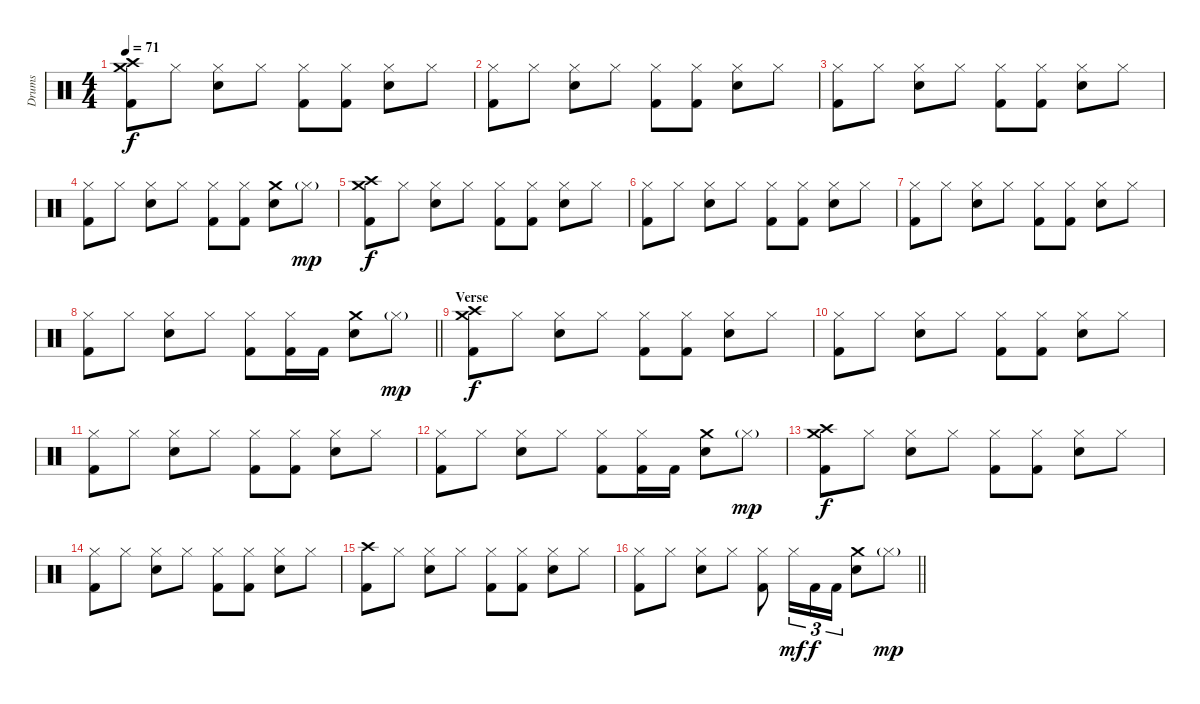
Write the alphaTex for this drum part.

\track ("Drums" "Drums") {instrument percussion}
\staff {score}
\articulation defaults
\ts (4 4)
\tempo 71
\clef neutral
\ks c
("Crash medium (hit)" "Crash high (hit)" "Kick (hit) 2").8{dy f} "Hi-Hat (closed)".8 ("Hi-Hat (closed)" "Snare (hit) 2").8 "Hi-Hat (closed)".8 ("Hi-Hat (closed)" "Kick (hit) 2").8 ("Hi-Hat (closed)" "Kick (hit) 2").8 ("Hi-Hat (closed)" "Snare (hit) 2").8 "Hi-Hat (closed)".8 |
("Hi-Hat (closed)" "Kick (hit) 2").8 "Hi-Hat (closed)".8 ("Hi-Hat (closed)" "Snare (hit) 2").8 "Hi-Hat (closed)".8 ("Hi-Hat (closed)" "Kick (hit) 2").8 ("Hi-Hat (closed)" "Kick (hit) 2").8 ("Hi-Hat (closed)" "Snare (hit) 2").8 "Hi-Hat (closed)".8 |
("Hi-Hat (closed)" "Kick (hit) 2").8 "Hi-Hat (closed)".8 ("Hi-Hat (closed)" "Snare (hit) 2").8 "Hi-Hat (closed)".8 ("Hi-Hat (closed)" "Kick (hit) 2").8 ("Hi-Hat (closed)" "Kick (hit) 2").8 ("Hi-Hat (closed)" "Snare (hit) 2").8 "Hi-Hat (closed)".8 |
("Hi-Hat (closed)" "Kick (hit) 2").8 "Hi-Hat (closed)".8 ("Hi-Hat (closed)" "Snare (hit) 2").8 "Hi-Hat (closed)".8 ("Hi-Hat (closed)" "Kick (hit) 2").8 ("Hi-Hat (closed)" "Kick (hit) 2").8 ("Crash medium (hit)" "Snare (hit) 2").8 "Hi-Hat (closed)"{g}.8{dy mp} |
("Crash medium (hit)" "Crash high (hit)" "Kick (hit) 2").8{dy f} "Hi-Hat (closed)".8 ("Hi-Hat (closed)" "Snare (hit) 2").8 "Hi-Hat (closed)".8 ("Hi-Hat (closed)" "Kick (hit) 2").8 ("Hi-Hat (closed)" "Kick (hit) 2").8 ("Hi-Hat (closed)" "Snare (hit) 2").8 "Hi-Hat (closed)".8 |
("Hi-Hat (closed)" "Kick (hit) 2").8 "Hi-Hat (closed)".8 ("Hi-Hat (closed)" "Snare (hit) 2").8 "Hi-Hat (closed)".8 ("Hi-Hat (closed)" "Kick (hit) 2").8 ("Hi-Hat (closed)" "Kick (hit) 2").8 ("Hi-Hat (closed)" "Snare (hit) 2").8 "Hi-Hat (closed)".8 |
("Hi-Hat (closed)" "Kick (hit) 2").8 "Hi-Hat (closed)".8 ("Hi-Hat (closed)" "Snare (hit) 2").8 "Hi-Hat (closed)".8 ("Hi-Hat (closed)" "Kick (hit) 2").8 ("Hi-Hat (closed)" "Kick (hit) 2").8 ("Hi-Hat (closed)" "Snare (hit) 2").8 "Hi-Hat (closed)".8 |
\barLineRight lightlight
("Hi-Hat (closed)" "Kick (hit) 2").8 "Hi-Hat (closed)".8 ("Hi-Hat (closed)" "Snare (hit) 2").8 "Hi-Hat (closed)".8 ("Hi-Hat (closed)" "Kick (hit) 2").8 ("Hi-Hat (closed)" "Kick (hit) 2").16 "Kick (hit) 2".16 ("Crash medium (hit)" "Snare (hit) 2").8 "Hi-Hat (closed)"{g}.8{dy mp} |
\section ("" "Verse")
("Crash medium (hit)" "Crash high (hit)" "Kick (hit) 2").8{dy f} "Hi-Hat (closed)".8 ("Hi-Hat (closed)" "Snare (hit) 2").8 "Hi-Hat (closed)".8 ("Hi-Hat (closed)" "Kick (hit) 2").8 ("Hi-Hat (closed)" "Kick (hit) 2").8 ("Hi-Hat (closed)" "Snare (hit) 2").8 "Hi-Hat (closed)".8 |
("Hi-Hat (closed)" "Kick (hit) 2").8 "Hi-Hat (closed)".8 ("Hi-Hat (closed)" "Snare (hit) 2").8 "Hi-Hat (closed)".8 ("Hi-Hat (closed)" "Kick (hit) 2").8 ("Hi-Hat (closed)" "Kick (hit) 2").8 ("Hi-Hat (closed)" "Snare (hit) 2").8 "Hi-Hat (closed)".8 |
("Hi-Hat (closed)" "Kick (hit) 2").8 "Hi-Hat (closed)".8 ("Hi-Hat (closed)" "Snare (hit) 2").8 "Hi-Hat (closed)".8 ("Hi-Hat (closed)" "Kick (hit) 2").8 ("Hi-Hat (closed)" "Kick (hit) 2").8 ("Hi-Hat (closed)" "Snare (hit) 2").8 "Hi-Hat (closed)".8 |
("Hi-Hat (closed)" "Kick (hit) 2").8 "Hi-Hat (closed)".8 ("Hi-Hat (closed)" "Snare (hit) 2").8 "Hi-Hat (closed)".8 ("Hi-Hat (closed)" "Kick (hit) 2").8 ("Hi-Hat (closed)" "Kick (hit) 2").16 "Kick (hit) 2".16 ("Crash medium (hit)" "Snare (hit) 2").8 "Hi-Hat (closed)"{g}.8{dy mp} |
("Crash medium (hit)" "Crash high (hit)" "Kick (hit) 2").8{dy f} "Hi-Hat (closed)".8 ("Hi-Hat (closed)" "Snare (hit) 2").8 "Hi-Hat (closed)".8 ("Hi-Hat (closed)" "Kick (hit) 2").8 ("Hi-Hat (closed)" "Kick (hit) 2").8 ("Hi-Hat (closed)" "Snare (hit) 2").8 "Hi-Hat (closed)".8 |
("Hi-Hat (closed)" "Kick (hit) 2").8 "Hi-Hat (closed)".8 ("Hi-Hat (closed)" "Snare (hit) 2").8 "Hi-Hat (closed)".8 ("Hi-Hat (closed)" "Kick (hit) 2").8 ("Hi-Hat (closed)" "Kick (hit) 2").8 ("Hi-Hat (closed)" "Snare (hit) 2").8 "Hi-Hat (closed)".8 |
("Crash high (hit)" "Kick (hit) 2").8 "Hi-Hat (closed)".8 ("Hi-Hat (closed)" "Snare (hit) 2").8 "Hi-Hat (closed)".8 ("Hi-Hat (closed)" "Kick (hit) 2").8 ("Hi-Hat (closed)" "Kick (hit) 2").8 ("Hi-Hat (closed)" "Snare (hit) 2").8 "Hi-Hat (closed)".8 |
\barLineRight lightlight
("Hi-Hat (closed)" "Kick (hit) 2").8 "Hi-Hat (closed)".8 ("Hi-Hat (closed)" "Snare (hit) 2").8 "Hi-Hat (closed)".8 ("Hi-Hat (closed)" "Kick (hit) 2").8 "Hi-Hat (closed)".16{tu (3 2) dy mf} "Kick (hit) 2".16{tu (3 2) dy f} "Kick (hit) 2".16{tu (3 2)} ("Crash medium (hit)" "Snare (hit) 2").8 "Hi-Hat (closed)"{g}.8{dy mp}
